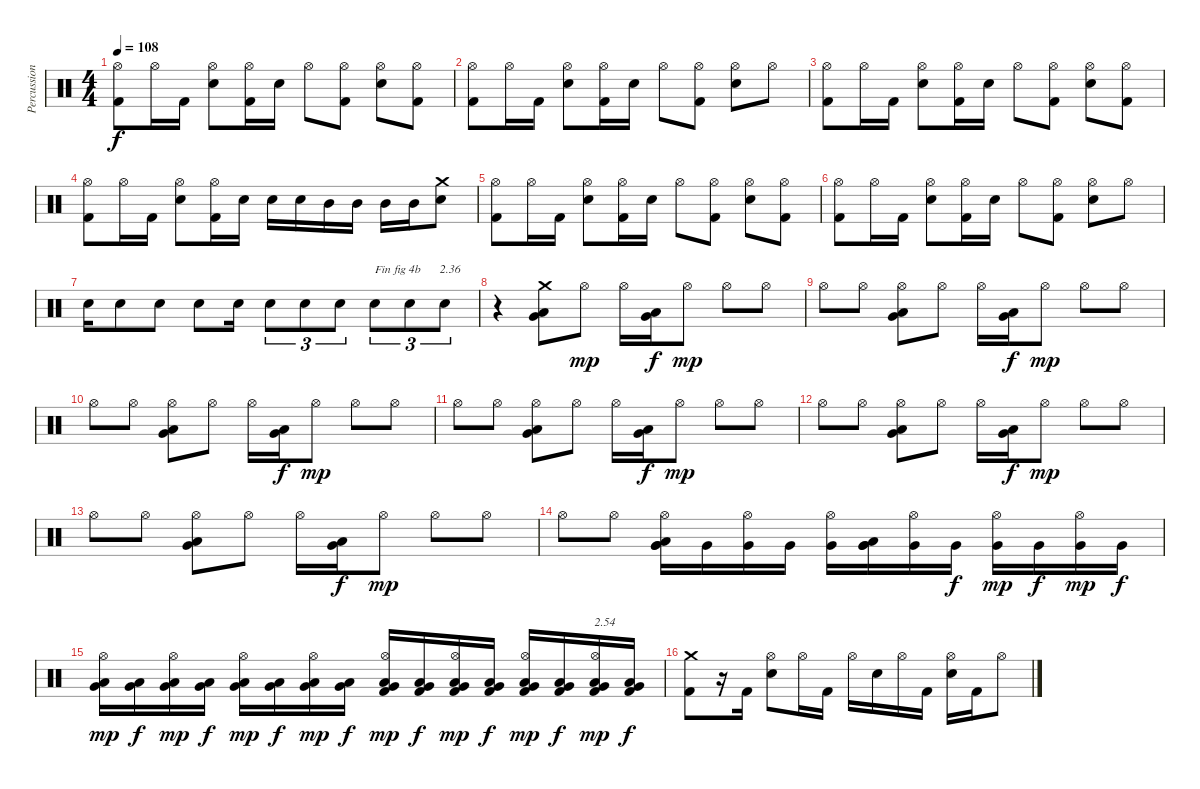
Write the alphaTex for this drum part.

\track ("Percussions" "Percussion") {instrument percussion}
\staff {score}
\articulation defaults
\ts (4 4)
\tempo 108
\clef neutral
\ks c
("Kick (hit) 2" "Hi-Hat (open)").8{dy f} "Hi-Hat (open)".16 "Kick (hit) 2".16 ("Electric Snare (hit)" "Hi-Hat (open)").8 ("Kick (hit) 2" "Hi-Hat (open)").16 "Electric Snare (hit)".16 "Hi-Hat (open)".8 ("Kick (hit) 2" "Hi-Hat (open)").8 ("Electric Snare (hit)" "Hi-Hat (open)").8 ("Kick (hit) 2" "Hi-Hat (open)").8 |
("Kick (hit) 2" "Hi-Hat (open)").8 "Hi-Hat (open)".16 "Kick (hit) 2".16 ("Electric Snare (hit)" "Hi-Hat (open)").8 ("Kick (hit) 2" "Hi-Hat (open)").16 "Electric Snare (hit)".16 "Hi-Hat (open)".8 ("Kick (hit) 2" "Hi-Hat (open)").8 ("Electric Snare (hit)" "Hi-Hat (open)").8 "Hi-Hat (open)".8 |
("Kick (hit) 2" "Hi-Hat (open)").8 "Hi-Hat (open)".16 "Kick (hit) 2".16 ("Electric Snare (hit)" "Hi-Hat (open)").8 ("Kick (hit) 2" "Hi-Hat (open)").16 "Electric Snare (hit)".16 "Hi-Hat (open)".8 ("Kick (hit) 2" "Hi-Hat (open)").8 ("Electric Snare (hit)" "Hi-Hat (open)").8 ("Kick (hit) 2" "Hi-Hat (open)").8 |
("Kick (hit) 2" "Hi-Hat (open)").8 "Hi-Hat (open)".16 "Kick (hit) 2".16 ("Electric Snare (hit)" "Hi-Hat (open)").8 ("Kick (hit) 2" "Hi-Hat (open)").16 "Electric Snare (hit)".16 "Electric Snare (hit)".16 "Electric Snare (hit)".16 "Mid Tom (hit)".16 "Mid Tom (hit)".16 "Mid Tom (hit)".16 "Mid Tom (hit)".16 ("Electric Snare (hit)" "Crash medium (hit)").8 |
("Kick (hit) 2" "Hi-Hat (open)").8 "Hi-Hat (open)".16 "Kick (hit) 2".16 ("Electric Snare (hit)" "Hi-Hat (open)").8 ("Kick (hit) 2" "Hi-Hat (open)").16 "Electric Snare (hit)".16 "Hi-Hat (open)".8 ("Kick (hit) 2" "Hi-Hat (open)").8 ("Electric Snare (hit)" "Hi-Hat (open)").8 ("Kick (hit) 2" "Hi-Hat (open)").8 |
("Kick (hit) 2" "Hi-Hat (open)").8 "Hi-Hat (open)".16 "Kick (hit) 2".16 ("Electric Snare (hit)" "Hi-Hat (open)").8 ("Kick (hit) 2" "Hi-Hat (open)").16 "Electric Snare (hit)".16 "Hi-Hat (open)".8 ("Kick (hit) 2" "Hi-Hat (open)").8 ("Electric Snare (hit)" "Hi-Hat (open)").8 "Hi-Hat (open)".8 |
"Electric Snare (hit)".16 "Electric Snare (hit)".8 "Electric Snare (hit)".8 "Electric Snare (hit)".8 "Electric Snare (hit)".16 "Electric Snare (hit)".8{tu (3 2)} "Electric Snare (hit)".8{tu (3 2)} "Electric Snare (hit)".8{tu (3 2)} "Electric Snare (hit)".8{tu (3 2) txt "Fin fig 4b"} "Electric Snare (hit)".8{tu (3 2) txt "          2.36"} "Electric Snare (hit)".8{tu (3 2)} |
r.4 ("Very Low Tom (hit)" "Low Tom (hit)" "Crash medium (hit)").8 "Hi-Hat (open)".8{dy mp} "Hi-Hat (open)".16 ("Very Low Tom (hit)" "Low Tom (hit)").16{dy f} "Hi-Hat (open)".8{dy mp} "Hi-Hat (open)".8 "Hi-Hat (open)".8 |
"Hi-Hat (open)".8 "Hi-Hat (open)".8 ("Very Low Tom (hit)" "Low Tom (hit)" "Hi-Hat (open)").8 "Hi-Hat (open)".8 "Hi-Hat (open)".16 ("Very Low Tom (hit)" "Low Tom (hit)").16{dy f} "Hi-Hat (open)".8{dy mp} "Hi-Hat (open)".8 "Hi-Hat (open)".8 |
"Hi-Hat (open)".8 "Hi-Hat (open)".8 ("Very Low Tom (hit)" "Low Tom (hit)" "Hi-Hat (open)").8 "Hi-Hat (open)".8 "Hi-Hat (open)".16 ("Very Low Tom (hit)" "Low Tom (hit)").16{dy f} "Hi-Hat (open)".8{dy mp} "Hi-Hat (open)".8 "Hi-Hat (open)".8 |
"Hi-Hat (open)".8 "Hi-Hat (open)".8 ("Very Low Tom (hit)" "Low Tom (hit)" "Hi-Hat (open)").8 "Hi-Hat (open)".8 "Hi-Hat (open)".16 ("Very Low Tom (hit)" "Low Tom (hit)").16{dy f} "Hi-Hat (open)".8{dy mp} "Hi-Hat (open)".8 "Hi-Hat (open)".8 |
"Hi-Hat (open)".8 "Hi-Hat (open)".8 ("Very Low Tom (hit)" "Low Tom (hit)" "Hi-Hat (open)").8 "Hi-Hat (open)".8 "Hi-Hat (open)".16 ("Very Low Tom (hit)" "Low Tom (hit)").16{dy f} "Hi-Hat (open)".8{dy mp} "Hi-Hat (open)".8 "Hi-Hat (open)".8 |
"Hi-Hat (open)".8 "Hi-Hat (open)".8 ("Very Low Tom (hit)" "Low Tom (hit)" "Hi-Hat (open)").8 "Hi-Hat (open)".8 "Hi-Hat (open)".16 ("Very Low Tom (hit)" "Low Tom (hit)").16{dy f} "Hi-Hat (open)".8{dy mp} "Hi-Hat (open)".8 "Hi-Hat (open)".8 |
"Hi-Hat (open)".8 "Hi-Hat (open)".8 ("Very Low Tom (hit)" "Low Tom (hit)" "Very Low Tom (hit)" "Hi-Hat (open)").16 "Very Low Tom (hit)".16 ("Very Low Tom (hit)" "Hi-Hat (open)").16 "Very Low Tom (hit)".16 ("Very Low Tom (hit)" "Hi-Hat (open)").16 ("Very Low Tom (hit)" "Low Tom (hit)" "Very Low Tom (hit)").16 ("Very Low Tom (hit)" "Hi-Hat (open)").16 "Very Low Tom (hit)".16{dy f} ("Very Low Tom (hit)" "Hi-Hat (open)").16{dy mp} "Very Low Tom (hit)".16{dy f} ("Very Low Tom (hit)" "Hi-Hat (open)").16{dy mp} "Very Low Tom (hit)".16{dy f} |
("Low Floor Tom (hit)" "Very Low Tom (hit)" "Hi-Hat (open)").16{dy mp} ("Low Floor Tom (hit)" "Very Low Tom (hit)").16{dy f} ("Low Floor Tom (hit)" "Very Low Tom (hit)" "Hi-Hat (open)").16{dy mp} ("Low Floor Tom (hit)" "Very Low Tom (hit)").16{dy f} ("Low Floor Tom (hit)" "Very Low Tom (hit)" "Hi-Hat (open)").16{dy mp} ("Low Floor Tom (hit)" "Very Low Tom (hit)").16{dy f} ("Low Floor Tom (hit)" "Very Low Tom (hit)" "Hi-Hat (open)").16{dy mp} ("Low Floor Tom (hit)" "Very Low Tom (hit)").16{dy f} ("Kick (hit) 2" "Low Floor Tom (hit)" "Very Low Tom (hit)" "Hi-Hat (open)").16{dy mp} ("Kick (hit) 2" "Low Floor Tom (hit)" "Very Low Tom (hit)").16{dy f} ("Kick (hit) 2" "Low Floor Tom (hit)" "Very Low Tom (hit)" "Hi-Hat (open)").16{dy mp} ("Kick (hit) 2" "Low Floor Tom (hit)" "Very Low Tom (hit)").16{dy f} ("Kick (hit) 2" "Low Floor Tom (hit)" "Very Low Tom (hit)" "Hi-Hat (open)").16{dy mp} ("Kick (hit) 2" "Low Floor Tom (hit)" "Very Low Tom (hit)").16{dy f} ("Kick (hit) 2" "Low Floor Tom (hit)" "Very Low Tom (hit)" "Hi-Hat (open)").16{txt "2.54" dy mp} ("Kick (hit) 2" "Low Floor Tom (hit)" "Very Low Tom (hit)").16{dy f} |
("Kick (hit) 2" "Crash medium (hit)").8 r.16 "Kick (hit) 2".16 ("Electric Snare (hit)" "Hi-Hat (open)").8 "Hi-Hat (open)".16 "Kick (hit) 2".16 "Hi-Hat (open)".16 "Electric Snare (hit)".16 "Hi-Hat (open)".16 "Kick (hit) 2".16 ("Electric Snare (hit)" "Hi-Hat (open)").16 "Kick (hit) 2".16 "Hi-Hat (open)".8
